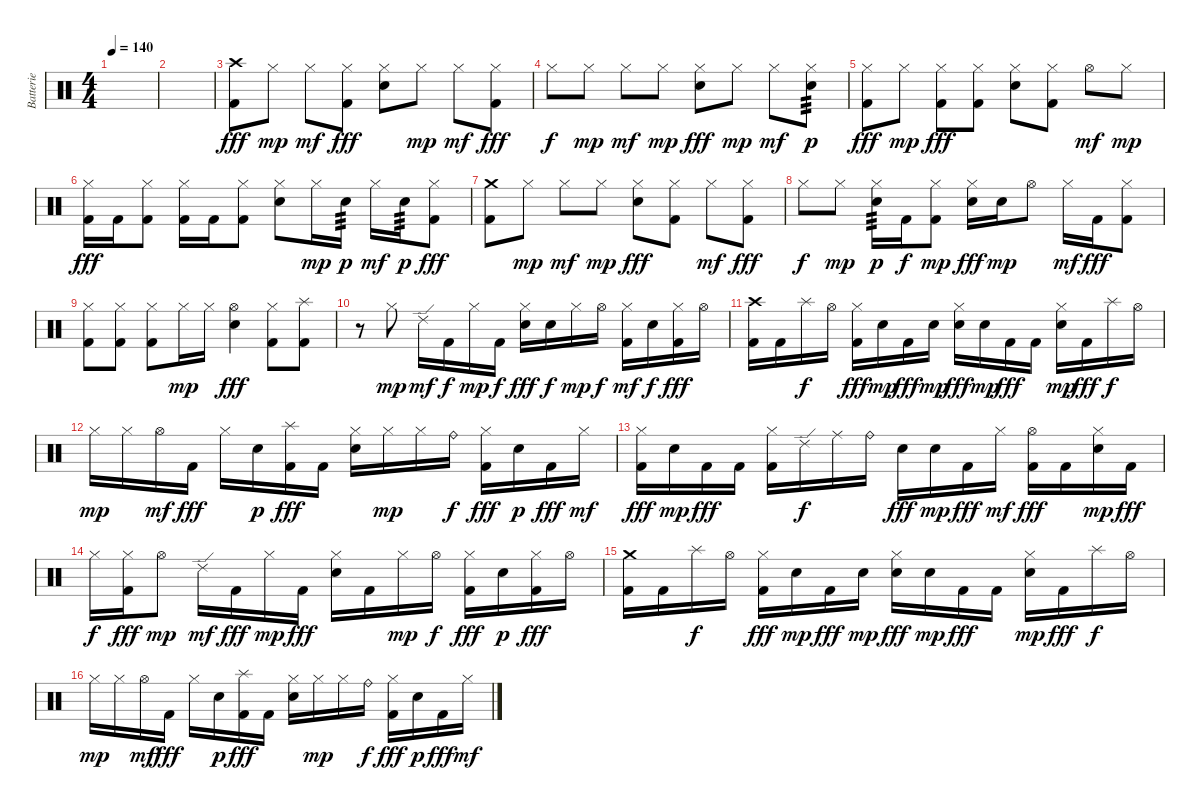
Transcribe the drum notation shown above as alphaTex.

\track ("Batterie" "Batterie") {instrument percussion}
\staff {score}
\articulation defaults
\ts (4 4)
\tempo 140
\clef neutral
\ks c
|
|
("Crash high (hit)" "Kick (hit) 2").8{dy fff} "Hi-Hat (closed)".8{dy mp} "Hi-Hat (closed)".8{dy mf} ("Hi-Hat (closed)" "Kick (hit) 2").8{dy fff} ("Hi-Hat (closed)" "Electric Snare (hit)").8 "Hi-Hat (closed)".8{dy mp} "Hi-Hat (closed)".8{dy mf} ("Hi-Hat (closed)" "Kick (hit) 2").8{dy fff} |
"Hi-Hat (closed)".8{dy f} "Hi-Hat (closed)".8{dy mp} "Hi-Hat (closed)".8{dy mf} "Hi-Hat (closed)".8{dy mp} ("Hi-Hat (closed)" "Electric Snare (hit)").8{dy fff} "Hi-Hat (closed)".8{dy mp} "Hi-Hat (closed)".8{dy mf} ("Hi-Hat (closed)" "Electric Snare (hit)").8{tp 3 dy p} |
("Hi-Hat (closed)" "Kick (hit) 2").8{dy fff} "Hi-Hat (closed)".8{dy mp} ("Hi-Hat (closed)" "Kick (hit) 2").8{dy fff} ("Hi-Hat (closed)" "Kick (hit) 2").8 ("Hi-Hat (closed)" "Electric Snare (hit)").8 ("Hi-Hat (closed)" "Kick (hit) 2").8 "Hi-Hat (open)".8{dy mf} "Hi-Hat (closed)".8{dy mp} |
("Hi-Hat (closed)" "Kick (hit) 2").16{dy fff} "Kick (hit) 2".16 ("Hi-Hat (closed)" "Kick (hit) 2").8 ("Hi-Hat (closed)" "Kick (hit) 2").16 "Kick (hit) 2".16 ("Hi-Hat (closed)" "Kick (hit) 2").8 ("Hi-Hat (closed)" "Electric Snare (hit)").8 "Hi-Hat (closed)".16{dy mp} "Electric Snare (hit)".16{tp 3 dy p} "Hi-Hat (closed)".16{dy mf} "Electric Snare (hit)".16{tp 3 dy p} ("Hi-Hat (closed)" "Kick (hit) 2").8{dy fff} |
("Crash medium (hit)" "Kick (hit) 2").8 "Hi-Hat (closed)".8{dy mp} "Hi-Hat (closed)".8{dy mf} "Hi-Hat (closed)".8{dy mp} ("Hi-Hat (closed)" "Electric Snare (hit)").8{dy fff} ("Hi-Hat (closed)" "Kick (hit) 2").8 "Hi-Hat (closed)".8{dy mf} ("Hi-Hat (closed)" "Kick (hit) 2").8{dy fff} |
"Hi-Hat (closed)".8{dy f} "Hi-Hat (closed)".8{dy mp} ("Hi-Hat (closed)" "Electric Snare (hit)").16{tp 3 dy p} "Kick (hit) 2".16{dy f} ("Hi-Hat (closed)" "Kick (hit) 2").8{dy mp} ("Hi-Hat (closed)" "Electric Snare (hit)").16{dy fff} "Electric Snare (hit)".16{dy mp} "Hi-Hat (open)".8 "Hi-Hat (closed)".16{dy mf} "Kick (hit) 2".16{dy fff} ("Hi-Hat (closed)" "Kick (hit) 2").8 |
("Hi-Hat (closed)" "Kick (hit) 2").8 ("Hi-Hat (closed)" "Kick (hit) 2").8 ("Hi-Hat (closed)" "Kick (hit) 2").8 "Hi-Hat (closed)".16{dy mp} "Hi-Hat (closed)".16 ("Hi-Hat (open)" "Electric Snare (hit)").4{dy fff} ("Hi-Hat (closed)" "Kick (hit) 2").8 ("Splash (hit)" "Kick (hit) 2").8 |
r.8 "Hi-Hat (closed)".8{dy mp} "Ride (edge) 2".16{dy mf} "Kick (hit) 2".16{dy f} "Hi-Hat (closed)".16{dy mp} "Kick (hit) 2".16{dy f} ("Hi-Hat (closed)" "Electric Snare (hit)").16{dy fff} "Electric Snare (hit)".16{dy f} "Hi-Hat (closed)".16{dy mp} "Hi-Hat (open)".16{dy f} ("Hi-Hat (closed)" "Kick (hit) 2").16{dy mf} "Electric Snare (hit)".16{dy f} ("Hi-Hat (closed)" "Kick (hit) 2").16{dy fff} "Hi-Hat (open)".16 |
("Crash high (hit)" "Kick (hit) 2").16{volume 10} "Kick (hit) 2".16 "Splash (hit)".16{dy f} "Hi-Hat (open)".16 ("Hi-Hat (closed)" "Kick (hit) 2").16{dy fff} "Electric Snare (hit)".16{dy mp} "Kick (hit) 2".16{dy fff} "Electric Snare (hit)".16{dy mp} ("Hi-Hat (closed)" "Electric Snare (hit)").16{dy fff} "Electric Snare (hit)".16{dy mp} "Kick (hit) 2".16{dy fff} "Kick (hit) 2".16 ("Hi-Hat (closed)" "Electric Snare (hit)").16{dy mp} "Kick (hit) 2".16{dy fff} "Splash (hit)".16{dy f} "Hi-Hat (open)".16 |
"Hi-Hat (closed)".16{dy mp} "Hi-Hat (closed)".16 "Hi-Hat (open)".16{dy mf} "Kick (hit) 2".16{dy fff} "Hi-Hat (closed)".16 "Electric Snare (hit)".16{dy p} ("Splash (hit)" "Kick (hit) 2").16{dy fff} "Kick (hit) 2".16 ("Hi-Hat (closed)" "Electric Snare (hit)").16 "Hi-Hat (closed)".16{dy mp} "Hi-Hat (closed)".16 "Ride (bell)".16{dy f} ("Hi-Hat (closed)" "Kick (hit) 2").16{dy fff} "Electric Snare (hit)".16{dy p} "Kick (hit) 2".16{dy fff} "Hi-Hat (closed)".16{dy mf} |
("Hi-Hat (closed)" "Kick (hit) 2").16{dy fff} "Electric Snare (hit)".16{dy mp} "Kick (hit) 2".16{dy fff} "Kick (hit) 2".16 ("Hi-Hat (closed)" "Kick (hit) 2").16 "Ride (edge) 2".16{dy f} "Ride (middle)".16 "Ride (bell)".16 "Electric Snare (hit)".16{dy fff} "Electric Snare (hit)".16{dy mp} "Kick (hit) 2".16{dy fff} "Hi-Hat (closed)".16{dy mf} ("Hi-Hat (open)" "Kick (hit) 2").16{dy fff} "Kick (hit) 2".16 ("Hi-Hat (closed)" "Electric Snare (hit)").16{dy mp} "Kick (hit) 2".16{dy fff} |
"Hi-Hat (closed)".16{dy f} ("Hi-Hat (closed)" "Kick (hit) 2").16{dy fff} "Hi-Hat (open)".8{dy mp} "Ride (edge) 2".16{dy mf} "Kick (hit) 2".16{dy fff} "Hi-Hat (closed)".16{dy mp} "Kick (hit) 2".16{dy fff} ("Hi-Hat (closed)" "Electric Snare (hit)").16 "Kick (hit) 2".16 "Hi-Hat (closed)".16{dy mp} "Hi-Hat (open)".16{dy f} ("Hi-Hat (closed)" "Kick (hit) 2").16{dy fff} "Electric Snare (hit)".16{dy p} ("Hi-Hat (closed)" "Kick (hit) 2").16{dy fff} "Hi-Hat (open)".16 |
("Crash medium (hit)" "Kick (hit) 2").16 "Kick (hit) 2".16 "Splash (hit)".16{dy f} "Hi-Hat (open)".16 ("Hi-Hat (closed)" "Kick (hit) 2").16{dy fff} "Electric Snare (hit)".16{dy mp} "Kick (hit) 2".16{dy fff} "Electric Snare (hit)".16{dy mp} ("Hi-Hat (closed)" "Electric Snare (hit)").16{dy fff} "Electric Snare (hit)".16{dy mp} "Kick (hit) 2".16{dy fff} "Kick (hit) 2".16 ("Hi-Hat (closed)" "Electric Snare (hit)").16{dy mp} "Kick (hit) 2".16{dy fff} "Splash (hit)".16{dy f} "Hi-Hat (open)".16 |
"Hi-Hat (closed)".16{dy mp} "Hi-Hat (closed)".16 "Hi-Hat (open)".16{dy mf} "Kick (hit) 2".16{dy fff} "Hi-Hat (closed)".16 "Electric Snare (hit)".16{dy p} ("Splash (hit)" "Kick (hit) 2").16{dy fff} "Kick (hit) 2".16 ("Hi-Hat (closed)" "Electric Snare (hit)").16 "Hi-Hat (closed)".16{dy mp} "Hi-Hat (closed)".16 "Ride (bell)".16{dy f} ("Hi-Hat (closed)" "Kick (hit) 2").16{dy fff} "Electric Snare (hit)".16{dy p} "Kick (hit) 2".16{dy fff} "Hi-Hat (closed)".16{dy mf}
